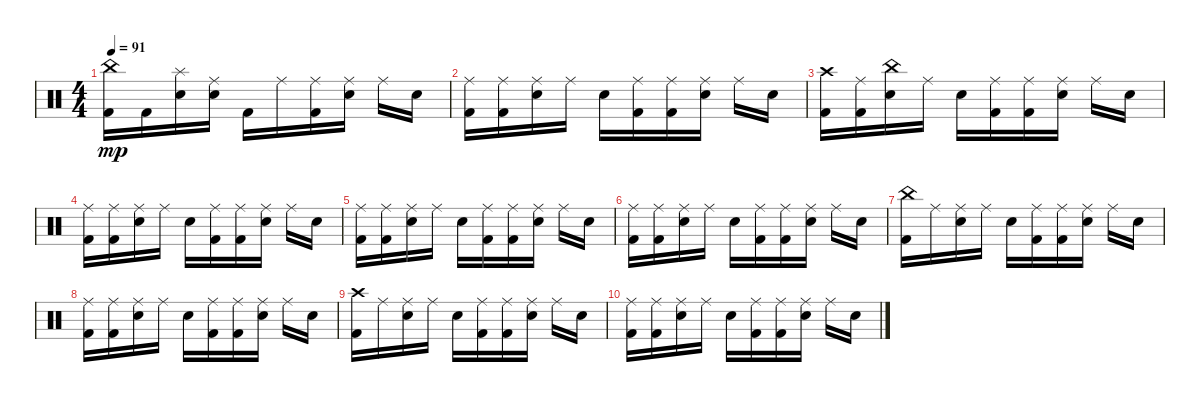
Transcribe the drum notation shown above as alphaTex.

\track "" {instrument percussion}
\staff {score}
\articulation defaults
\ts (4 4)
\tempo 91
\clef neutral
\ks c
("Kick (hit) 2" "China (hit)").16{dy mp} "Kick (hit) 2".16 ("Electric Snare (hit)" "Splash (hit)").16 ("Electric Snare (hit)" "Ride (middle)").16 "Kick (hit) 2".16 "Ride (middle)".16 ("Ride (middle)" "Kick (hit) 2").16 ("Ride (middle)" "Electric Snare (hit)").16 "Ride (middle)".16 "Electric Snare (hit)".16 |
("Ride (middle)" "Kick (hit) 2").16 ("Ride (middle)" "Kick (hit) 2").16 ("Ride (middle)" "Electric Snare (hit)").16 "Ride (middle)".16 "Electric Snare (hit)".16 ("Ride (middle)" "Kick (hit) 2").16 ("Kick (hit) 2" "Ride (middle)").16 ("Ride (middle)" "Electric Snare (hit)").16 "Ride (middle)".16 "Electric Snare (hit)".16 |
("Kick (hit) 2" "Crash high (hit)").16 ("Ride (middle)" "Kick (hit) 2").16 ("Electric Snare (hit)" "China (hit)").16 "Ride (middle)".16 "Electric Snare (hit)".16 ("Ride (middle)" "Kick (hit) 2").16 ("Ride (middle)" "Kick (hit) 2").16 ("Ride (middle)" "Electric Snare (hit)").16 "Ride (middle)".16 "Electric Snare (hit)".16 |
("Ride (middle)" "Kick (hit) 2").16 ("Ride (middle)" "Kick (hit) 2").16 ("Ride (middle)" "Electric Snare (hit)").16 "Ride (middle)".16 "Electric Snare (hit)".16 ("Ride (middle)" "Kick (hit) 2").16 ("Ride (middle)" "Kick (hit) 2").16 ("Ride (middle)" "Electric Snare (hit)").16 "Ride (middle)".16 "Electric Snare (hit)".16 |
("Kick (hit) 2" "Ride (middle)").16 ("Ride (middle)" "Kick (hit) 2").16 ("Ride (middle)" "Electric Snare (hit)").16 "Ride (middle)".16 "Electric Snare (hit)".16 ("Ride (middle)" "Kick (hit) 2").16 ("Ride (middle)" "Kick (hit) 2").16 ("Ride (middle)" "Electric Snare (hit)").16 "Ride (middle)".16 "Electric Snare (hit)".16 |
("Ride (middle)" "Kick (hit) 2").16 ("Ride (middle)" "Kick (hit) 2").16 ("Ride (middle)" "Electric Snare (hit)").16 "Ride (middle)".16 "Electric Snare (hit)".16 ("Ride (middle)" "Kick (hit) 2").16 ("Ride (middle)" "Kick (hit) 2").16 ("Ride (middle)" "Electric Snare (hit)").16 "Ride (middle)".16 "Electric Snare (hit)".16 |
("Kick (hit) 2" "China (hit)").16 "Ride (middle)".16 ("Electric Snare (hit)" "Ride (middle)").16 "Ride (middle)".16 "Electric Snare (hit)".16 ("Kick (hit) 2" "Ride (middle)").16 ("Ride (middle)" "Kick (hit) 2").16 ("Ride (middle)" "Electric Snare (hit)").16 "Ride (middle)".16 "Electric Snare (hit)".16 |
("Kick (hit) 2" "Ride (middle)").16 ("Ride (middle)" "Kick (hit) 2").16 ("Electric Snare (hit)" "Ride (middle)").16 "Ride (middle)".16 "Electric Snare (hit)".16 ("Ride (middle)" "Kick (hit) 2").16 ("Ride (middle)" "Kick (hit) 2").16 ("Ride (middle)" "Electric Snare (hit)").16 "Ride (middle)".16 "Electric Snare (hit)".16 |
("Kick (hit) 2" "Crash high (hit)").16 "Ride (middle)".16 ("Ride (middle)" "Electric Snare (hit)").16 "Ride (middle)".16 "Electric Snare (hit)".16 ("Kick (hit) 2" "Ride (middle)").16 ("Ride (middle)" "Kick (hit) 2").16 ("Ride (middle)" "Electric Snare (hit)").16 "Ride (middle)".16 "Electric Snare (hit)".16 |
("Kick (hit) 2" "Ride (middle)").16 ("Ride (middle)" "Kick (hit) 2").16 ("Electric Snare (hit)" "Ride (middle)").16 "Ride (middle)".16 "Electric Snare (hit)".16 ("Kick (hit) 2" "Ride (middle)").16 ("Ride (middle)" "Kick (hit) 2").16 ("Ride (middle)" "Electric Snare (hit)").16 "Ride (middle)".16 "Electric Snare (hit)".16
